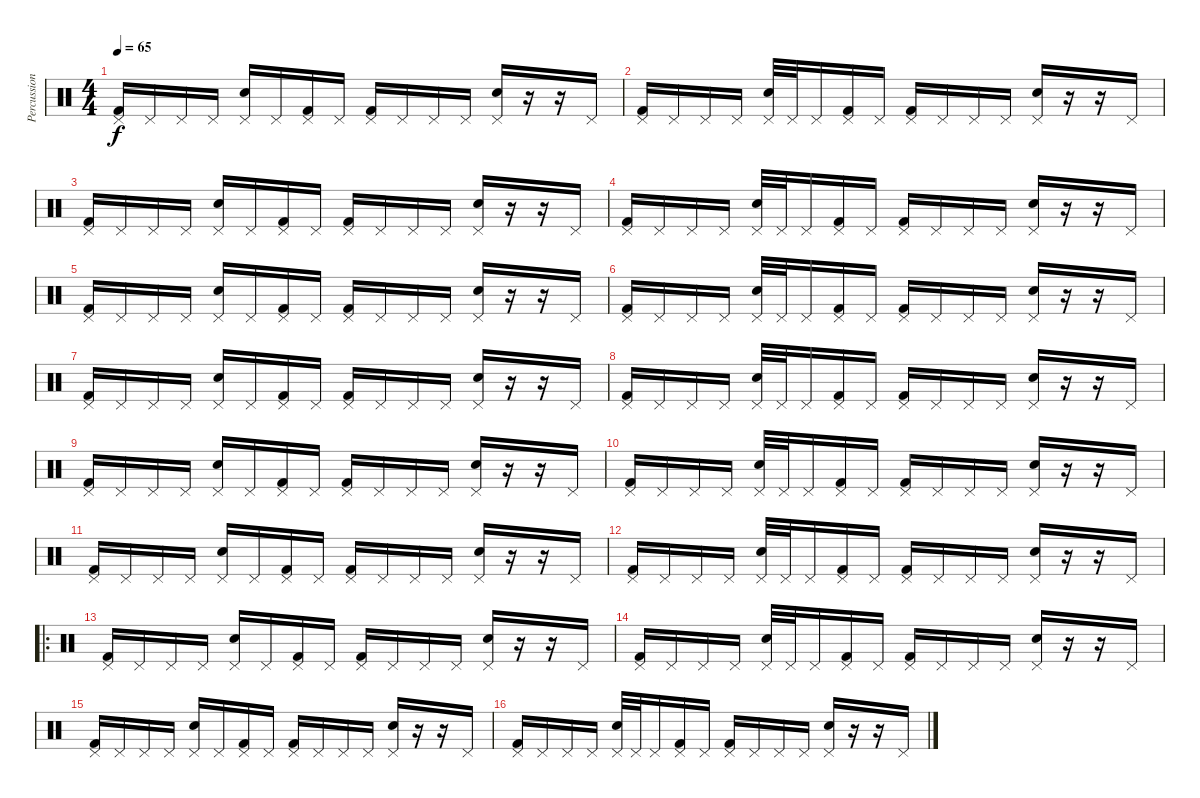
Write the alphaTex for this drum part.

\track ("Percussion" "Percussion") {instrument percussion}
\staff {score}
\articulation defaults
\ts (4 4)
\tempo 65
\clef neutral
\ks c
("Pedal Hi-Hat (hit)" "Kick (hit) 2").16{dy f} "Pedal Hi-Hat (hit)".16 "Pedal Hi-Hat (hit)".16 "Pedal Hi-Hat (hit)".16 ("Pedal Hi-Hat (hit)" "Snare (hit) 2").16 "Pedal Hi-Hat (hit)".16 ("Pedal Hi-Hat (hit)" "Kick (hit) 2").16 "Pedal Hi-Hat (hit)".16 ("Pedal Hi-Hat (hit)" "Kick (hit) 2").16 "Pedal Hi-Hat (hit)".16 "Pedal Hi-Hat (hit)".16 "Pedal Hi-Hat (hit)".16 ("Pedal Hi-Hat (hit)" "Snare (hit) 2").16 r.16 r.16 "Pedal Hi-Hat (hit)".16 |
("Pedal Hi-Hat (hit)" "Kick (hit) 2").16 "Pedal Hi-Hat (hit)".16 "Pedal Hi-Hat (hit)".16 "Pedal Hi-Hat (hit)".16 ("Pedal Hi-Hat (hit)" "Snare (hit) 2").32 "Pedal Hi-Hat (hit)".32 "Pedal Hi-Hat (hit)".16 ("Pedal Hi-Hat (hit)" "Kick (hit) 2").16 "Pedal Hi-Hat (hit)".16 ("Pedal Hi-Hat (hit)" "Kick (hit) 2").16 "Pedal Hi-Hat (hit)".16 "Pedal Hi-Hat (hit)".16 "Pedal Hi-Hat (hit)".16 ("Pedal Hi-Hat (hit)" "Snare (hit) 2").16 r.16 r.16 "Pedal Hi-Hat (hit)".16 |
("Pedal Hi-Hat (hit)" "Kick (hit) 2").16 "Pedal Hi-Hat (hit)".16 "Pedal Hi-Hat (hit)".16 "Pedal Hi-Hat (hit)".16 ("Pedal Hi-Hat (hit)" "Snare (hit) 2").16 "Pedal Hi-Hat (hit)".16 ("Pedal Hi-Hat (hit)" "Kick (hit) 2").16 "Pedal Hi-Hat (hit)".16 ("Pedal Hi-Hat (hit)" "Kick (hit) 2").16 "Pedal Hi-Hat (hit)".16 "Pedal Hi-Hat (hit)".16 "Pedal Hi-Hat (hit)".16 ("Pedal Hi-Hat (hit)" "Snare (hit) 2").16 r.16 r.16 "Pedal Hi-Hat (hit)".16 |
("Pedal Hi-Hat (hit)" "Kick (hit) 2").16 "Pedal Hi-Hat (hit)".16 "Pedal Hi-Hat (hit)".16 "Pedal Hi-Hat (hit)".16 ("Pedal Hi-Hat (hit)" "Snare (hit) 2").32 "Pedal Hi-Hat (hit)".32 "Pedal Hi-Hat (hit)".16 ("Pedal Hi-Hat (hit)" "Kick (hit) 2").16 "Pedal Hi-Hat (hit)".16 ("Pedal Hi-Hat (hit)" "Kick (hit) 2").16 "Pedal Hi-Hat (hit)".16 "Pedal Hi-Hat (hit)".16 "Pedal Hi-Hat (hit)".16 ("Pedal Hi-Hat (hit)" "Snare (hit) 2").16 r.16 r.16 "Pedal Hi-Hat (hit)".16 |
("Pedal Hi-Hat (hit)" "Kick (hit) 2").16 "Pedal Hi-Hat (hit)".16 "Pedal Hi-Hat (hit)".16 "Pedal Hi-Hat (hit)".16 ("Pedal Hi-Hat (hit)" "Snare (hit) 2").16 "Pedal Hi-Hat (hit)".16 ("Pedal Hi-Hat (hit)" "Kick (hit) 2").16 "Pedal Hi-Hat (hit)".16 ("Pedal Hi-Hat (hit)" "Kick (hit) 2").16 "Pedal Hi-Hat (hit)".16 "Pedal Hi-Hat (hit)".16 "Pedal Hi-Hat (hit)".16 ("Pedal Hi-Hat (hit)" "Snare (hit) 2").16 r.16 r.16 "Pedal Hi-Hat (hit)".16 |
("Pedal Hi-Hat (hit)" "Kick (hit) 2").16 "Pedal Hi-Hat (hit)".16 "Pedal Hi-Hat (hit)".16 "Pedal Hi-Hat (hit)".16 ("Pedal Hi-Hat (hit)" "Snare (hit) 2").32 "Pedal Hi-Hat (hit)".32 "Pedal Hi-Hat (hit)".16 ("Pedal Hi-Hat (hit)" "Kick (hit) 2").16 "Pedal Hi-Hat (hit)".16 ("Pedal Hi-Hat (hit)" "Kick (hit) 2").16 "Pedal Hi-Hat (hit)".16 "Pedal Hi-Hat (hit)".16 "Pedal Hi-Hat (hit)".16 ("Pedal Hi-Hat (hit)" "Snare (hit) 2").16 r.16 r.16 "Pedal Hi-Hat (hit)".16 |
("Pedal Hi-Hat (hit)" "Kick (hit) 2").16 "Pedal Hi-Hat (hit)".16 "Pedal Hi-Hat (hit)".16 "Pedal Hi-Hat (hit)".16 ("Pedal Hi-Hat (hit)" "Snare (hit) 2").16 "Pedal Hi-Hat (hit)".16 ("Pedal Hi-Hat (hit)" "Kick (hit) 2").16 "Pedal Hi-Hat (hit)".16 ("Pedal Hi-Hat (hit)" "Kick (hit) 2").16 "Pedal Hi-Hat (hit)".16 "Pedal Hi-Hat (hit)".16 "Pedal Hi-Hat (hit)".16 ("Pedal Hi-Hat (hit)" "Snare (hit) 2").16 r.16 r.16 "Pedal Hi-Hat (hit)".16 |
("Pedal Hi-Hat (hit)" "Kick (hit) 2").16 "Pedal Hi-Hat (hit)".16 "Pedal Hi-Hat (hit)".16 "Pedal Hi-Hat (hit)".16 ("Pedal Hi-Hat (hit)" "Snare (hit) 2").32 "Pedal Hi-Hat (hit)".32 "Pedal Hi-Hat (hit)".16 ("Pedal Hi-Hat (hit)" "Kick (hit) 2").16 "Pedal Hi-Hat (hit)".16 ("Pedal Hi-Hat (hit)" "Kick (hit) 2").16 "Pedal Hi-Hat (hit)".16 "Pedal Hi-Hat (hit)".16 "Pedal Hi-Hat (hit)".16 ("Pedal Hi-Hat (hit)" "Snare (hit) 2").16 r.16 r.16 "Pedal Hi-Hat (hit)".16 |
("Pedal Hi-Hat (hit)" "Kick (hit) 2").16 "Pedal Hi-Hat (hit)".16 "Pedal Hi-Hat (hit)".16 "Pedal Hi-Hat (hit)".16 ("Pedal Hi-Hat (hit)" "Snare (hit) 2").16 "Pedal Hi-Hat (hit)".16 ("Pedal Hi-Hat (hit)" "Kick (hit) 2").16 "Pedal Hi-Hat (hit)".16 ("Pedal Hi-Hat (hit)" "Kick (hit) 2").16 "Pedal Hi-Hat (hit)".16 "Pedal Hi-Hat (hit)".16 "Pedal Hi-Hat (hit)".16 ("Pedal Hi-Hat (hit)" "Snare (hit) 2").16 r.16 r.16 "Pedal Hi-Hat (hit)".16 |
("Pedal Hi-Hat (hit)" "Kick (hit) 2").16 "Pedal Hi-Hat (hit)".16 "Pedal Hi-Hat (hit)".16 "Pedal Hi-Hat (hit)".16 ("Pedal Hi-Hat (hit)" "Snare (hit) 2").32 "Pedal Hi-Hat (hit)".32 "Pedal Hi-Hat (hit)".16 ("Pedal Hi-Hat (hit)" "Kick (hit) 2").16 "Pedal Hi-Hat (hit)".16 ("Pedal Hi-Hat (hit)" "Kick (hit) 2").16 "Pedal Hi-Hat (hit)".16 "Pedal Hi-Hat (hit)".16 "Pedal Hi-Hat (hit)".16 ("Pedal Hi-Hat (hit)" "Snare (hit) 2").16 r.16 r.16 "Pedal Hi-Hat (hit)".16 |
("Pedal Hi-Hat (hit)" "Kick (hit) 2").16 "Pedal Hi-Hat (hit)".16 "Pedal Hi-Hat (hit)".16 "Pedal Hi-Hat (hit)".16 ("Pedal Hi-Hat (hit)" "Snare (hit) 2").16 "Pedal Hi-Hat (hit)".16 ("Pedal Hi-Hat (hit)" "Kick (hit) 2").16 "Pedal Hi-Hat (hit)".16 ("Pedal Hi-Hat (hit)" "Kick (hit) 2").16 "Pedal Hi-Hat (hit)".16 "Pedal Hi-Hat (hit)".16 "Pedal Hi-Hat (hit)".16 ("Pedal Hi-Hat (hit)" "Snare (hit) 2").16 r.16 r.16 "Pedal Hi-Hat (hit)".16 |
("Pedal Hi-Hat (hit)" "Kick (hit) 2").16 "Pedal Hi-Hat (hit)".16 "Pedal Hi-Hat (hit)".16 "Pedal Hi-Hat (hit)".16 ("Pedal Hi-Hat (hit)" "Snare (hit) 2").32 "Pedal Hi-Hat (hit)".32 "Pedal Hi-Hat (hit)".16 ("Pedal Hi-Hat (hit)" "Kick (hit) 2").16 "Pedal Hi-Hat (hit)".16 ("Pedal Hi-Hat (hit)" "Kick (hit) 2").16 "Pedal Hi-Hat (hit)".16 "Pedal Hi-Hat (hit)".16 "Pedal Hi-Hat (hit)".16 ("Pedal Hi-Hat (hit)" "Snare (hit) 2").16 r.16 r.16 "Pedal Hi-Hat (hit)".16 |
\ro
("Pedal Hi-Hat (hit)" "Kick (hit) 2").16 "Pedal Hi-Hat (hit)".16 "Pedal Hi-Hat (hit)".16 "Pedal Hi-Hat (hit)".16 ("Pedal Hi-Hat (hit)" "Snare (hit) 2").16 "Pedal Hi-Hat (hit)".16 ("Pedal Hi-Hat (hit)" "Kick (hit) 2").16 "Pedal Hi-Hat (hit)".16 ("Pedal Hi-Hat (hit)" "Kick (hit) 2").16 "Pedal Hi-Hat (hit)".16 "Pedal Hi-Hat (hit)".16 "Pedal Hi-Hat (hit)".16 ("Pedal Hi-Hat (hit)" "Snare (hit) 2").16 r.16 r.16 "Pedal Hi-Hat (hit)".16 |
("Pedal Hi-Hat (hit)" "Kick (hit) 2").16 "Pedal Hi-Hat (hit)".16 "Pedal Hi-Hat (hit)".16 "Pedal Hi-Hat (hit)".16 ("Pedal Hi-Hat (hit)" "Snare (hit) 2").32 "Pedal Hi-Hat (hit)".32 "Pedal Hi-Hat (hit)".16 ("Pedal Hi-Hat (hit)" "Kick (hit) 2").16 "Pedal Hi-Hat (hit)".16 ("Pedal Hi-Hat (hit)" "Kick (hit) 2").16 "Pedal Hi-Hat (hit)".16 "Pedal Hi-Hat (hit)".16 "Pedal Hi-Hat (hit)".16 ("Pedal Hi-Hat (hit)" "Snare (hit) 2").16 r.16 r.16 "Pedal Hi-Hat (hit)".16 |
("Pedal Hi-Hat (hit)" "Kick (hit) 2").16 "Pedal Hi-Hat (hit)".16 "Pedal Hi-Hat (hit)".16 "Pedal Hi-Hat (hit)".16 ("Pedal Hi-Hat (hit)" "Snare (hit) 2").16 "Pedal Hi-Hat (hit)".16 ("Pedal Hi-Hat (hit)" "Kick (hit) 2").16 "Pedal Hi-Hat (hit)".16 ("Pedal Hi-Hat (hit)" "Kick (hit) 2").16 "Pedal Hi-Hat (hit)".16 "Pedal Hi-Hat (hit)".16 "Pedal Hi-Hat (hit)".16 ("Pedal Hi-Hat (hit)" "Snare (hit) 2").16 r.16 r.16 "Pedal Hi-Hat (hit)".16 |
("Pedal Hi-Hat (hit)" "Kick (hit) 2").16 "Pedal Hi-Hat (hit)".16 "Pedal Hi-Hat (hit)".16 "Pedal Hi-Hat (hit)".16 ("Pedal Hi-Hat (hit)" "Snare (hit) 2").32 "Pedal Hi-Hat (hit)".32 "Pedal Hi-Hat (hit)".16 ("Pedal Hi-Hat (hit)" "Kick (hit) 2").16 "Pedal Hi-Hat (hit)".16 ("Pedal Hi-Hat (hit)" "Kick (hit) 2").16 "Pedal Hi-Hat (hit)".16 "Pedal Hi-Hat (hit)".16 "Pedal Hi-Hat (hit)".16 ("Pedal Hi-Hat (hit)" "Snare (hit) 2").16 r.16 r.16 "Pedal Hi-Hat (hit)".16
